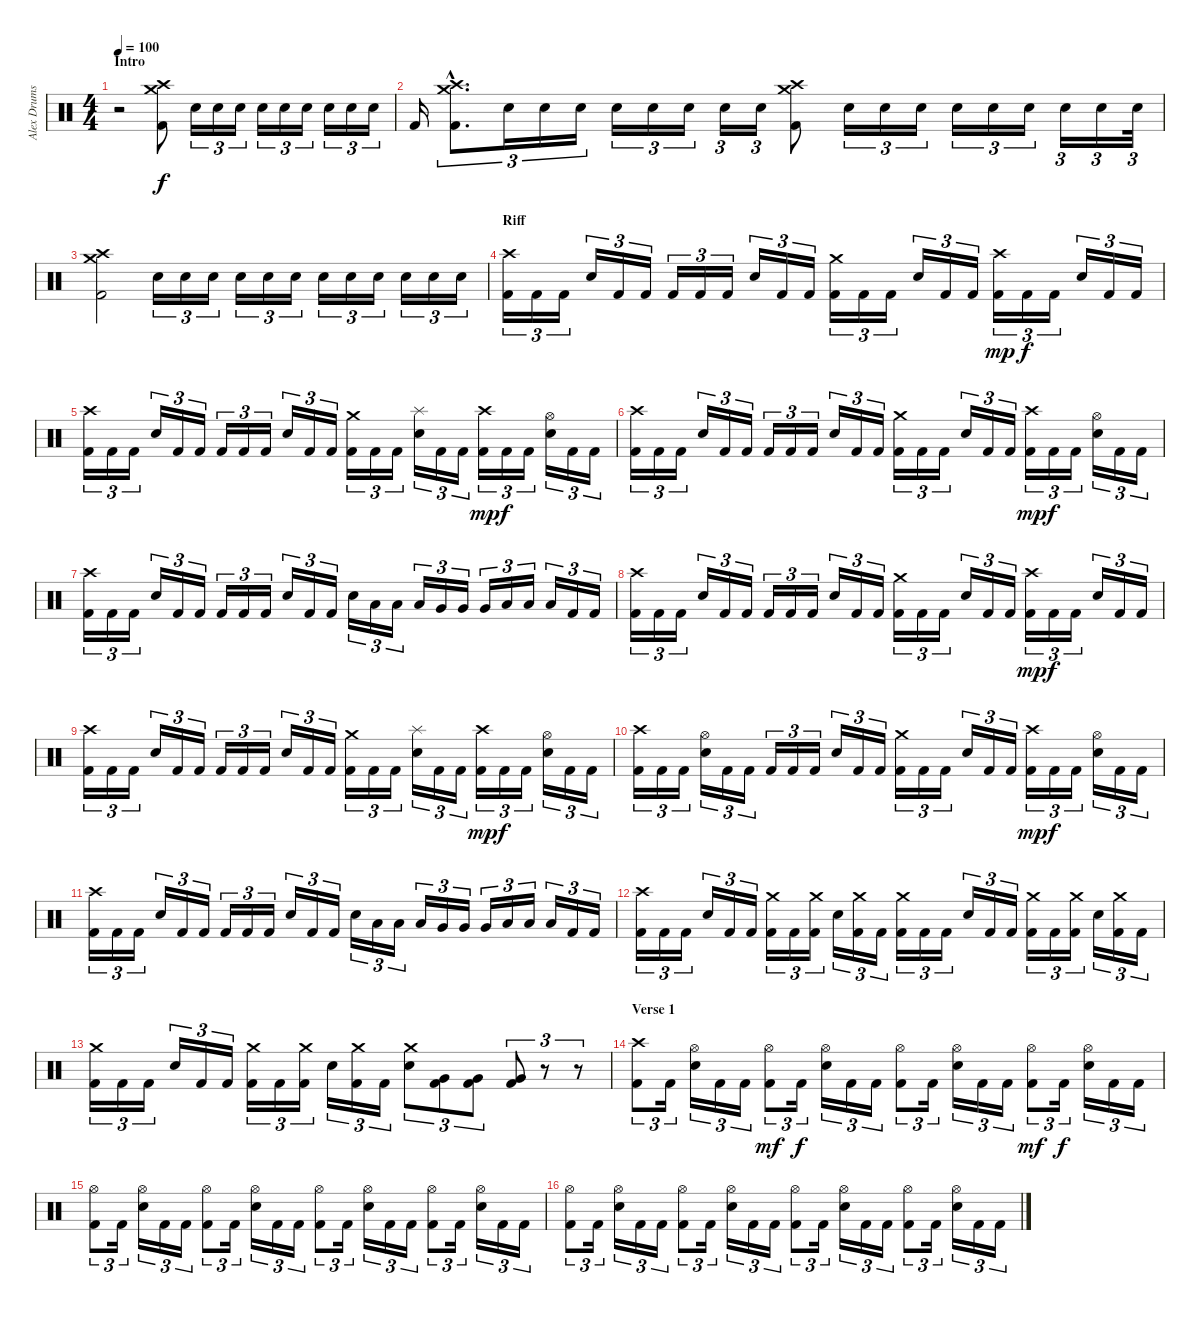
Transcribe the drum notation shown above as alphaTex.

\track ("Alex Drums" "Alex Drums") {instrument percussion}
\staff {score}
\articulation defaults
\ts (4 4)
\section ("" "Intro")
\tempo 100
\clef neutral
\ks c
r.2{dy f} ("Crash high (hit)" "Crash medium (hit)" "Kick (hit) 2").8 "Electric Snare (hit)".16{tu (3 2)} "Electric Snare (hit)".16{tu (3 2)} "Electric Snare (hit)".16{tu (3 2)} "Electric Snare (hit)".16{tu (3 2)} "Electric Snare (hit)".16{tu (3 2)} "Electric Snare (hit)".16{tu (3 2)} "Electric Snare (hit)".16{tu (3 2)} "Electric Snare (hit)".16{tu (3 2)} "Electric Snare (hit)".16{tu (3 2)} |
"Kick (hit) 2".16 ("Crash high (hit)"{hac} "Crash medium (hit)"{hac} "Kick (hit) 2"{hac}).8{d tu (3 2)} "Electric Snare (hit)".16{tu (3 2)} "Electric Snare (hit)".16{tu (3 2)} "Electric Snare (hit)".16{tu (3 2)} "Electric Snare (hit)".16{tu (3 2)} "Electric Snare (hit)".16{tu (3 2)} "Electric Snare (hit)".16{tu (3 2)} "Electric Snare (hit)".16{tu (3 2)} "Electric Snare (hit)".16{tu (3 2)} ("Crash high (hit)" "Crash medium (hit)" "Kick (hit) 2").8 "Electric Snare (hit)".16{tu (3 2)} "Electric Snare (hit)".16{tu (3 2)} "Electric Snare (hit)".16{tu (3 2)} "Electric Snare (hit)".16{tu (3 2)} "Electric Snare (hit)".16{tu (3 2)} "Electric Snare (hit)".16{tu (3 2)} "Electric Snare (hit)".16{tu (3 2)} "Electric Snare (hit)".16{tu (3 2)} "Electric Snare (hit)".32{tu (3 2)} |
("Crash high (hit)" "Crash medium (hit)" "Kick (hit) 2").2 "Electric Snare (hit)".16{tu (3 2)} "Electric Snare (hit)".16{tu (3 2)} "Electric Snare (hit)".16{tu (3 2)} "Electric Snare (hit)".16{tu (3 2)} "Electric Snare (hit)".16{tu (3 2)} "Electric Snare (hit)".16{tu (3 2)} "Electric Snare (hit)".16{tu (3 2)} "Electric Snare (hit)".16{tu (3 2)} "Electric Snare (hit)".16{tu (3 2)} "Electric Snare (hit)".16{tu (3 2)} "Electric Snare (hit)".16{tu (3 2)} "Electric Snare (hit)".16{tu (3 2)} |
\section ("" "Riff")
("Crash high (hit)" "Kick (hit) 2").16{tu (3 2)} "Kick (hit) 2".16{tu (3 2)} "Kick (hit) 2".16{tu (3 2)} "Electric Snare (hit)".16{tu (3 2)} "Kick (hit) 2".16{tu (3 2)} "Kick (hit) 2".16{tu (3 2)} "Kick (hit) 2".16{tu (3 2)} "Kick (hit) 2".16{tu (3 2)} "Kick (hit) 2".16{tu (3 2)} "Electric Snare (hit)".16{tu (3 2)} "Kick (hit) 2".16{tu (3 2)} "Kick (hit) 2".16{tu (3 2)} ("Crash medium (hit)" "Kick (hit) 2").16{tu (3 2)} "Kick (hit) 2".16{tu (3 2)} "Kick (hit) 2".16{tu (3 2)} "Electric Snare (hit)".16{tu (3 2)} "Kick (hit) 2".16{tu (3 2)} "Kick (hit) 2".16{tu (3 2)} ("Crash high (hit)" "Kick (hit) 2").16{tu (3 2) dy mp} "Kick (hit) 2".16{tu (3 2) dy f} "Kick (hit) 2".16{tu (3 2)} "Electric Snare (hit)".16{tu (3 2)} "Kick (hit) 2".16{tu (3 2)} "Kick (hit) 2".16{tu (3 2)} |
("Crash high (hit)" "Kick (hit) 2").16{tu (3 2)} "Kick (hit) 2".16{tu (3 2)} "Kick (hit) 2".16{tu (3 2)} "Electric Snare (hit)".16{tu (3 2)} "Kick (hit) 2".16{tu (3 2)} "Kick (hit) 2".16{tu (3 2)} "Kick (hit) 2".16{tu (3 2)} "Kick (hit) 2".16{tu (3 2)} "Kick (hit) 2".16{tu (3 2)} "Electric Snare (hit)".16{tu (3 2)} "Kick (hit) 2".16{tu (3 2)} "Kick (hit) 2".16{tu (3 2)} ("Crash medium (hit)" "Kick (hit) 2").16{tu (3 2)} "Kick (hit) 2".16{tu (3 2)} "Kick (hit) 2".16{tu (3 2)} ("Splash (hit)" "Electric Snare (hit)").16{tu (3 2)} "Kick (hit) 2".16{tu (3 2)} "Kick (hit) 2".16{tu (3 2)} ("Crash high (hit)" "Kick (hit) 2").16{tu (3 2) dy mp} "Kick (hit) 2".16{tu (3 2) dy f} "Kick (hit) 2".16{tu (3 2)} ("Hi-Hat (open)" "Electric Snare (hit)").16{tu (3 2)} "Kick (hit) 2".16{tu (3 2)} "Kick (hit) 2".16{tu (3 2)} |
("Crash high (hit)" "Kick (hit) 2").16{tu (3 2)} "Kick (hit) 2".16{tu (3 2)} "Kick (hit) 2".16{tu (3 2)} "Electric Snare (hit)".16{tu (3 2)} "Kick (hit) 2".16{tu (3 2)} "Kick (hit) 2".16{tu (3 2)} "Kick (hit) 2".16{tu (3 2)} "Kick (hit) 2".16{tu (3 2)} "Kick (hit) 2".16{tu (3 2)} "Electric Snare (hit)".16{tu (3 2)} "Kick (hit) 2".16{tu (3 2)} "Kick (hit) 2".16{tu (3 2)} ("Crash medium (hit)" "Kick (hit) 2").16{tu (3 2)} "Kick (hit) 2".16{tu (3 2)} "Kick (hit) 2".16{tu (3 2)} "Electric Snare (hit)".16{tu (3 2)} "Kick (hit) 2".16{tu (3 2)} "Kick (hit) 2".16{tu (3 2)} ("Crash high (hit)" "Kick (hit) 2").16{tu (3 2) dy mp} "Kick (hit) 2".16{tu (3 2) dy f} "Kick (hit) 2".16{tu (3 2)} ("Hi-Hat (open)" "Electric Snare (hit)").16{tu (3 2)} "Kick (hit) 2".16{tu (3 2)} "Kick (hit) 2".16{tu (3 2)} |
("Crash high (hit)" "Kick (hit) 2").16{tu (3 2)} "Kick (hit) 2".16{tu (3 2)} "Kick (hit) 2".16{tu (3 2)} "Electric Snare (hit)".16{tu (3 2)} "Kick (hit) 2".16{tu (3 2)} "Kick (hit) 2".16{tu (3 2)} "Kick (hit) 2".16{tu (3 2)} "Kick (hit) 2".16{tu (3 2)} "Kick (hit) 2".16{tu (3 2)} "Electric Snare (hit)".16{tu (3 2)} "Kick (hit) 2".16{tu (3 2)} "Kick (hit) 2".16{tu (3 2)} "Electric Snare (hit)".16{tu (3 2)} "Low Tom (hit)".16{tu (3 2)} "Low Tom (hit)".16{tu (3 2)} "Low Tom (hit)".16{tu (3 2)} "Very Low Tom (hit)".16{tu (3 2)} "Very Low Tom (hit)".16{tu (3 2)} "Very Low Tom (hit)".16{tu (3 2)} "Low Floor Tom (hit)".16{tu (3 2)} "Low Floor Tom (hit)".16{tu (3 2)} "Low Floor Tom (hit)".16{tu (3 2)} "Kick (hit) 2".16{tu (3 2)} "Kick (hit) 2".16{tu (3 2)} |
("Crash high (hit)" "Kick (hit) 2").16{tu (3 2)} "Kick (hit) 2".16{tu (3 2)} "Kick (hit) 2".16{tu (3 2)} "Electric Snare (hit)".16{tu (3 2)} "Kick (hit) 2".16{tu (3 2)} "Kick (hit) 2".16{tu (3 2)} "Kick (hit) 2".16{tu (3 2)} "Kick (hit) 2".16{tu (3 2)} "Kick (hit) 2".16{tu (3 2)} "Electric Snare (hit)".16{tu (3 2)} "Kick (hit) 2".16{tu (3 2)} "Kick (hit) 2".16{tu (3 2)} ("Crash medium (hit)" "Kick (hit) 2").16{tu (3 2)} "Kick (hit) 2".16{tu (3 2)} "Kick (hit) 2".16{tu (3 2)} "Electric Snare (hit)".16{tu (3 2)} "Kick (hit) 2".16{tu (3 2)} "Kick (hit) 2".16{tu (3 2)} ("Crash high (hit)" "Kick (hit) 2").16{tu (3 2) dy mp} "Kick (hit) 2".16{tu (3 2) dy f} "Kick (hit) 2".16{tu (3 2)} "Electric Snare (hit)".16{tu (3 2)} "Kick (hit) 2".16{tu (3 2)} "Kick (hit) 2".16{tu (3 2)} |
("Crash high (hit)" "Kick (hit) 2").16{tu (3 2)} "Kick (hit) 2".16{tu (3 2)} "Kick (hit) 2".16{tu (3 2)} "Electric Snare (hit)".16{tu (3 2)} "Kick (hit) 2".16{tu (3 2)} "Kick (hit) 2".16{tu (3 2)} "Kick (hit) 2".16{tu (3 2)} "Kick (hit) 2".16{tu (3 2)} "Kick (hit) 2".16{tu (3 2)} "Electric Snare (hit)".16{tu (3 2)} "Kick (hit) 2".16{tu (3 2)} "Kick (hit) 2".16{tu (3 2)} ("Crash medium (hit)" "Kick (hit) 2").16{tu (3 2)} "Kick (hit) 2".16{tu (3 2)} "Kick (hit) 2".16{tu (3 2)} ("Splash (hit)" "Electric Snare (hit)").16{tu (3 2)} "Kick (hit) 2".16{tu (3 2)} "Kick (hit) 2".16{tu (3 2)} ("Crash high (hit)" "Kick (hit) 2").16{tu (3 2) dy mp} "Kick (hit) 2".16{tu (3 2) dy f} "Kick (hit) 2".16{tu (3 2)} ("Hi-Hat (open)" "Electric Snare (hit)").16{tu (3 2)} "Kick (hit) 2".16{tu (3 2)} "Kick (hit) 2".16{tu (3 2)} |
("Crash high (hit)" "Kick (hit) 2").16{tu (3 2)} "Kick (hit) 2".16{tu (3 2)} "Kick (hit) 2".16{tu (3 2)} ("Hi-Hat (open)" "Electric Snare (hit)").16{tu (3 2)} "Kick (hit) 2".16{tu (3 2)} "Kick (hit) 2".16{tu (3 2)} "Kick (hit) 2".16{tu (3 2)} "Kick (hit) 2".16{tu (3 2)} "Kick (hit) 2".16{tu (3 2)} "Electric Snare (hit)".16{tu (3 2)} "Kick (hit) 2".16{tu (3 2)} "Kick (hit) 2".16{tu (3 2)} ("Crash medium (hit)" "Kick (hit) 2").16{tu (3 2)} "Kick (hit) 2".16{tu (3 2)} "Kick (hit) 2".16{tu (3 2)} "Electric Snare (hit)".16{tu (3 2)} "Kick (hit) 2".16{tu (3 2)} "Kick (hit) 2".16{tu (3 2)} ("Crash high (hit)" "Kick (hit) 2").16{tu (3 2) dy mp} "Kick (hit) 2".16{tu (3 2) dy f} "Kick (hit) 2".16{tu (3 2)} ("Hi-Hat (open)" "Electric Snare (hit)").16{tu (3 2)} "Kick (hit) 2".16{tu (3 2)} "Kick (hit) 2".16{tu (3 2)} |
("Crash high (hit)" "Kick (hit) 2").16{tu (3 2)} "Kick (hit) 2".16{tu (3 2)} "Kick (hit) 2".16{tu (3 2)} "Electric Snare (hit)".16{tu (3 2)} "Kick (hit) 2".16{tu (3 2)} "Kick (hit) 2".16{tu (3 2)} "Kick (hit) 2".16{tu (3 2)} "Kick (hit) 2".16{tu (3 2)} "Kick (hit) 2".16{tu (3 2)} "Electric Snare (hit)".16{tu (3 2)} "Kick (hit) 2".16{tu (3 2)} "Kick (hit) 2".16{tu (3 2)} "Electric Snare (hit)".16{tu (3 2)} "Low Tom (hit)".16{tu (3 2)} "Low Tom (hit)".16{tu (3 2)} "Low Tom (hit)".16{tu (3 2)} "Very Low Tom (hit)".16{tu (3 2)} "Very Low Tom (hit)".16{tu (3 2)} "Very Low Tom (hit)".16{tu (3 2)} "Low Floor Tom (hit)".16{tu (3 2)} "Low Floor Tom (hit)".16{tu (3 2)} "Low Floor Tom (hit)".16{tu (3 2)} "Kick (hit) 2".16{tu (3 2)} "Kick (hit) 2".16{tu (3 2)} |
("Crash high (hit)" "Kick (hit) 2").16{tu (3 2)} "Kick (hit) 2".16{tu (3 2)} "Kick (hit) 2".16{tu (3 2)} "Electric Snare (hit)".16{tu (3 2)} "Kick (hit) 2".16{tu (3 2)} "Kick (hit) 2".16{tu (3 2)} ("Crash medium (hit)" "Kick (hit) 2").16{tu (3 2)} "Kick (hit) 2".16{tu (3 2)} ("Crash medium (hit)" "Kick (hit) 2").16{tu (3 2)} "Electric Snare (hit)".16{tu (3 2)} ("Crash medium (hit)" "Kick (hit) 2").16{tu (3 2)} "Kick (hit) 2".16{tu (3 2)} ("Crash medium (hit)" "Kick (hit) 2").16{tu (3 2)} "Kick (hit) 2".16{tu (3 2)} "Kick (hit) 2".16{tu (3 2)} "Electric Snare (hit)".16{tu (3 2)} "Kick (hit) 2".16{tu (3 2)} "Kick (hit) 2".16{tu (3 2)} ("Crash medium (hit)" "Kick (hit) 2").16{tu (3 2)} "Kick (hit) 2".16{tu (3 2)} ("Crash medium (hit)" "Kick (hit) 2").16{tu (3 2)} "Electric Snare (hit)".16{tu (3 2)} ("Crash medium (hit)" "Kick (hit) 2").16{tu (3 2)} "Kick (hit) 2".16{tu (3 2)} |
("Crash medium (hit)" "Kick (hit) 2").16{tu (3 2)} "Kick (hit) 2".16{tu (3 2)} "Kick (hit) 2".16{tu (3 2)} "Electric Snare (hit)".16{tu (3 2)} "Kick (hit) 2".16{tu (3 2)} "Kick (hit) 2".16{tu (3 2)} ("Crash medium (hit)" "Kick (hit) 2").16{tu (3 2)} "Kick (hit) 2".16{tu (3 2)} ("Crash medium (hit)" "Kick (hit) 2").16{tu (3 2)} "Electric Snare (hit)".16{tu (3 2)} ("Crash medium (hit)" "Kick (hit) 2").16{tu (3 2)} "Kick (hit) 2".16{tu (3 2)} ("Crash medium (hit)" "Electric Snare (hit)").8{tu (3 2)} ("Very Low Tom (hit)" "Kick (hit) 2").8{tu (3 2)} ("Very Low Tom (hit)" "Kick (hit) 2").8{tu (3 2)} ("Very Low Tom (hit)" "Kick (hit) 2").8{tu (3 2)} r.8{tu (3 2)} r.8{tu (3 2)} |
\section ("" "Verse 1")
("Crash high (hit)" "Kick (hit) 2").8{tu (3 2)} "Kick (hit) 2".16{tu (3 2)} ("Hi-Hat (open)" "Electric Snare (hit)").16{tu (3 2)} "Kick (hit) 2".16{tu (3 2)} "Kick (hit) 2".16{tu (3 2)} ("Hi-Hat (open)" "Kick (hit) 2").8{tu (3 2) dy mf} "Kick (hit) 2".16{tu (3 2) dy f} ("Hi-Hat (open)" "Electric Snare (hit)").16{tu (3 2)} "Kick (hit) 2".16{tu (3 2)} "Kick (hit) 2".16{tu (3 2)} ("Hi-Hat (open)" "Kick (hit) 2").8{tu (3 2)} "Kick (hit) 2".16{tu (3 2)} ("Hi-Hat (open)" "Electric Snare (hit)").16{tu (3 2)} "Kick (hit) 2".16{tu (3 2)} "Kick (hit) 2".16{tu (3 2)} ("Hi-Hat (open)" "Kick (hit) 2").8{tu (3 2) dy mf} "Kick (hit) 2".16{tu (3 2) dy f} ("Hi-Hat (open)" "Electric Snare (hit)").16{tu (3 2)} "Kick (hit) 2".16{tu (3 2)} "Kick (hit) 2".16{tu (3 2)} |
("Hi-Hat (open)" "Kick (hit) 2").8{tu (3 2)} "Kick (hit) 2".16{tu (3 2)} ("Hi-Hat (open)" "Electric Snare (hit)").16{tu (3 2)} "Kick (hit) 2".16{tu (3 2)} "Kick (hit) 2".16{tu (3 2)} ("Hi-Hat (open)" "Kick (hit) 2").8{tu (3 2)} "Kick (hit) 2".16{tu (3 2)} ("Hi-Hat (open)" "Electric Snare (hit)").16{tu (3 2)} "Kick (hit) 2".16{tu (3 2)} "Kick (hit) 2".16{tu (3 2)} ("Hi-Hat (open)" "Kick (hit) 2").8{tu (3 2)} "Kick (hit) 2".16{tu (3 2)} ("Hi-Hat (open)" "Electric Snare (hit)").16{tu (3 2)} "Kick (hit) 2".16{tu (3 2)} "Kick (hit) 2".16{tu (3 2)} ("Hi-Hat (open)" "Kick (hit) 2").8{tu (3 2)} "Kick (hit) 2".16{tu (3 2)} ("Hi-Hat (open)" "Electric Snare (hit)").16{tu (3 2)} "Kick (hit) 2".16{tu (3 2)} "Kick (hit) 2".16{tu (3 2)} |
("Hi-Hat (open)" "Kick (hit) 2").8{tu (3 2)} "Kick (hit) 2".16{tu (3 2)} ("Hi-Hat (open)" "Electric Snare (hit)").16{tu (3 2)} "Kick (hit) 2".16{tu (3 2)} "Kick (hit) 2".16{tu (3 2)} ("Hi-Hat (open)" "Kick (hit) 2").8{tu (3 2)} "Kick (hit) 2".16{tu (3 2)} ("Hi-Hat (open)" "Electric Snare (hit)").16{tu (3 2)} "Kick (hit) 2".16{tu (3 2)} "Kick (hit) 2".16{tu (3 2)} ("Hi-Hat (open)" "Kick (hit) 2").8{tu (3 2)} "Kick (hit) 2".16{tu (3 2)} ("Hi-Hat (open)" "Electric Snare (hit)").16{tu (3 2)} "Kick (hit) 2".16{tu (3 2)} "Kick (hit) 2".16{tu (3 2)} ("Hi-Hat (open)" "Kick (hit) 2").8{tu (3 2)} "Kick (hit) 2".16{tu (3 2)} ("Hi-Hat (open)" "Electric Snare (hit)").16{tu (3 2)} "Kick (hit) 2".16{tu (3 2)} "Kick (hit) 2".16{tu (3 2)}
